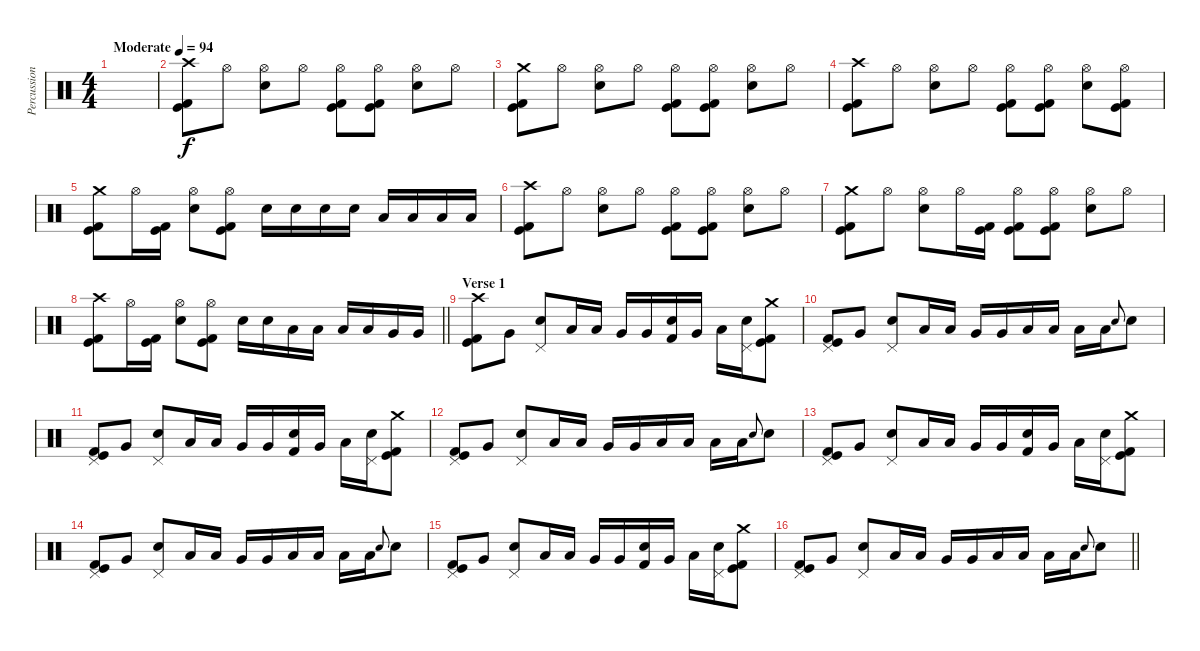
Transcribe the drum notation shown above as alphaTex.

\track ("Percussion" "Percussion") {instrument percussion}
\staff {score}
\articulation defaults
\ts (4 4)
\tempo (94 "Moderate")
\clef neutral
\ks c
|
("Crash high (hit)" "Kick (hit)" "Kick (hit) 2").8 "Hi-Hat (open)".8 ("Hi-Hat (open)" "Electric Snare (hit)").8 "Hi-Hat (open)".8 ("Hi-Hat (open)" "Kick (hit)" "Kick (hit) 2").8 ("Hi-Hat (open)" "Kick (hit)" "Kick (hit) 2").8 ("Hi-Hat (open)" "Electric Snare (hit)").8 "Hi-Hat (open)".8 |
("Crash medium (hit)" "Kick (hit)" "Kick (hit) 2").8 "Hi-Hat (open)".8 ("Hi-Hat (open)" "Electric Snare (hit)").8 "Hi-Hat (open)".8 ("Hi-Hat (open)" "Kick (hit)" "Kick (hit) 2").8 ("Hi-Hat (open)" "Kick (hit)" "Kick (hit) 2").8 ("Hi-Hat (open)" "Electric Snare (hit)").8 "Hi-Hat (open)".8 |
("Crash high (hit)" "Kick (hit)" "Kick (hit) 2").8 "Hi-Hat (open)".8 ("Hi-Hat (open)" "Electric Snare (hit)").8 "Hi-Hat (open)".8 ("Hi-Hat (open)" "Kick (hit)" "Kick (hit) 2").8 ("Hi-Hat (open)" "Kick (hit)" "Kick (hit) 2").8 ("Hi-Hat (open)" "Electric Snare (hit)").8 ("Hi-Hat (open)" "Kick (hit)" "Kick (hit) 2").8 |
("Crash medium (hit)" "Kick (hit)" "Kick (hit) 2").8 "Hi-Hat (open)".16 ("Kick (hit)" "Kick (hit) 2").16 ("Hi-Hat (open)" "Electric Snare (hit)").8 ("Hi-Hat (open)" "Kick (hit)" "Kick (hit) 2").8 "Electric Snare (hit)".16 "Electric Snare (hit)".16 "Electric Snare (hit)".16 "Electric Snare (hit)".16 "Low Tom (hit)".16 "Low Tom (hit)".16 "Low Tom (hit)".16 "Low Tom (hit)".16 |
("Crash high (hit)" "Kick (hit)" "Kick (hit) 2").8 "Hi-Hat (open)".8 ("Hi-Hat (open)" "Electric Snare (hit)").8 "Hi-Hat (open)".8 ("Hi-Hat (open)" "Kick (hit)" "Kick (hit) 2").8 ("Hi-Hat (open)" "Kick (hit)" "Kick (hit) 2").8 ("Hi-Hat (open)" "Electric Snare (hit)").8 "Hi-Hat (open)".8 |
("Crash medium (hit)" "Kick (hit)" "Kick (hit) 2").8 "Hi-Hat (open)".8 ("Hi-Hat (open)" "Electric Snare (hit)").8 "Hi-Hat (open)".16 ("Kick (hit)" "Kick (hit) 2").16 ("Hi-Hat (open)" "Kick (hit)" "Kick (hit) 2").8 ("Hi-Hat (open)" "Kick (hit)" "Kick (hit) 2").8 ("Hi-Hat (open)" "Electric Snare (hit)").8 "Hi-Hat (open)".8 |
\barLineRight lightlight
("Crash high (hit)" "Kick (hit)" "Kick (hit) 2").8 "Hi-Hat (open)".16 ("Kick (hit)" "Kick (hit) 2").16 ("Hi-Hat (open)" "Electric Snare (hit)").8 ("Hi-Hat (open)" "Kick (hit)" "Kick (hit) 2").8 "Electric Snare (hit)".16 "Electric Snare (hit)".16 "Low Tom (hit)".16 "Low Tom (hit)".16 "Low Tom (hit)".16 "Low Tom (hit)".16 "Very Low Tom (hit)".16 "Very Low Tom (hit)".16 |
\section ("" "Verse 1")
("Crash high (hit)" "Kick (hit)" "Kick (hit) 2").8 "Very Low Tom (hit)".8 ("Pedal Hi-Hat (hit)" "Electric Snare (hit)").8 "Low Tom (hit)".16 "Low Tom (hit)".16 "Very Low Tom (hit)".16 "Very Low Tom (hit)".16 ("Electric Snare (hit)" "Kick (hit) 2").16 "Very Low Tom (hit)".16 "Low Floor Tom (hit)".16 ("Pedal Hi-Hat (hit)" "Electric Snare (hit)").16 ("Crash medium (hit)" "Kick (hit)" "Kick (hit) 2").8 |
("Pedal Hi-Hat (hit)" "Kick (hit)" "Kick (hit) 2").8 "Very Low Tom (hit)".8 ("Pedal Hi-Hat (hit)" "Electric Snare (hit)").8 "Low Tom (hit)".16 "Low Tom (hit)".16 "Very Low Tom (hit)".16 "Very Low Tom (hit)".16 "Low Floor Tom (hit)".16 "Low Floor Tom (hit)".16 "Low Tom (hit)".16 "Low Tom (hit)".16 "Electric Snare (hit)".8{gr onbeat} "Electric Snare (hit)".8 |
("Pedal Hi-Hat (hit)" "Kick (hit)" "Kick (hit) 2").8 "Very Low Tom (hit)".8 ("Pedal Hi-Hat (hit)" "Electric Snare (hit)").8 "Low Tom (hit)".16 "Low Tom (hit)".16 "Very Low Tom (hit)".16 "Very Low Tom (hit)".16 ("Electric Snare (hit)" "Kick (hit) 2").16 "Very Low Tom (hit)".16 "Low Floor Tom (hit)".16 ("Pedal Hi-Hat (hit)" "Electric Snare (hit)").16 ("Crash medium (hit)" "Kick (hit)" "Kick (hit) 2").8 |
("Pedal Hi-Hat (hit)" "Kick (hit)" "Kick (hit) 2").8 "Very Low Tom (hit)".8 ("Pedal Hi-Hat (hit)" "Electric Snare (hit)").8 "Low Tom (hit)".16 "Low Tom (hit)".16 "Very Low Tom (hit)".16 "Very Low Tom (hit)".16 "Low Floor Tom (hit)".16 "Low Floor Tom (hit)".16 "Low Tom (hit)".16 "Low Tom (hit)".16 "Electric Snare (hit)".8{gr onbeat} "Electric Snare (hit)".8 |
("Pedal Hi-Hat (hit)" "Kick (hit)" "Kick (hit) 2").8 "Very Low Tom (hit)".8 ("Pedal Hi-Hat (hit)" "Electric Snare (hit)").8 "Low Tom (hit)".16 "Low Tom (hit)".16 "Very Low Tom (hit)".16 "Very Low Tom (hit)".16 ("Electric Snare (hit)" "Kick (hit) 2").16 "Very Low Tom (hit)".16 "Low Floor Tom (hit)".16 ("Pedal Hi-Hat (hit)" "Electric Snare (hit)").16 ("Crash medium (hit)" "Kick (hit)" "Kick (hit) 2").8 |
("Pedal Hi-Hat (hit)" "Kick (hit)" "Kick (hit) 2").8 "Very Low Tom (hit)".8 ("Pedal Hi-Hat (hit)" "Electric Snare (hit)").8 "Low Tom (hit)".16 "Low Tom (hit)".16 "Very Low Tom (hit)".16 "Very Low Tom (hit)".16 "Low Floor Tom (hit)".16 "Low Floor Tom (hit)".16 "Low Tom (hit)".16 "Low Tom (hit)".16 "Electric Snare (hit)".8{gr onbeat} "Electric Snare (hit)".8 |
("Pedal Hi-Hat (hit)" "Kick (hit)" "Kick (hit) 2").8 "Very Low Tom (hit)".8 ("Pedal Hi-Hat (hit)" "Electric Snare (hit)").8 "Low Tom (hit)".16 "Low Tom (hit)".16 "Very Low Tom (hit)".16 "Very Low Tom (hit)".16 ("Electric Snare (hit)" "Kick (hit) 2").16 "Very Low Tom (hit)".16 "Low Floor Tom (hit)".16 ("Pedal Hi-Hat (hit)" "Electric Snare (hit)").16 ("Crash medium (hit)" "Kick (hit)" "Kick (hit) 2").8 |
\barLineRight lightlight
("Pedal Hi-Hat (hit)" "Kick (hit)" "Kick (hit) 2").8 "Very Low Tom (hit)".8 ("Pedal Hi-Hat (hit)" "Electric Snare (hit)").8 "Low Tom (hit)".16 "Low Tom (hit)".16 "Very Low Tom (hit)".16 "Very Low Tom (hit)".16 "Low Floor Tom (hit)".16 "Low Floor Tom (hit)".16 "Low Tom (hit)".16 "Low Tom (hit)".16 "Electric Snare (hit)".8{gr onbeat} "Electric Snare (hit)".8
